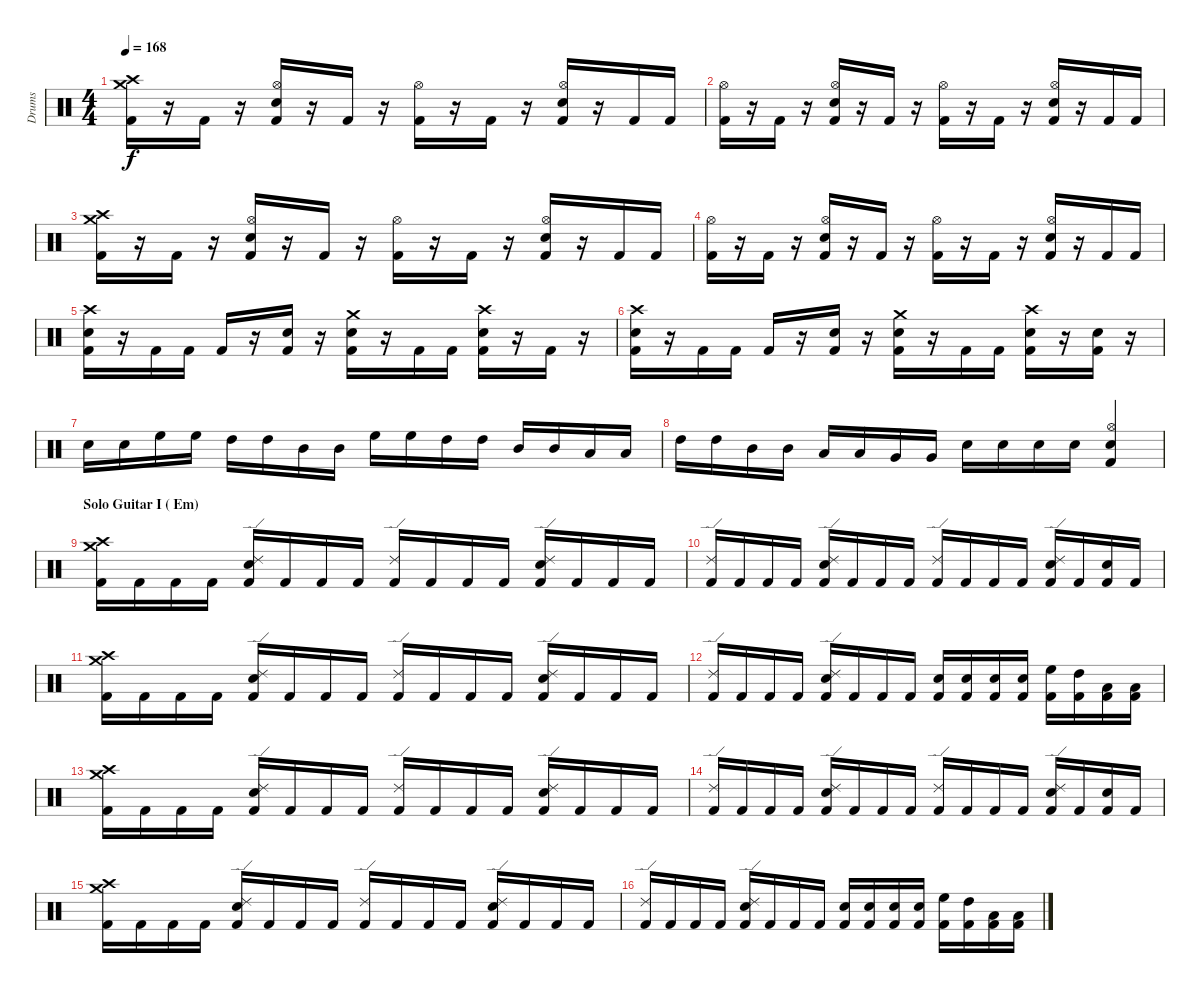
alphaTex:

\track ("Drums" "Drums") {instrument percussion}
\staff {score}
\articulation defaults
\ts (4 4)
\tempo 168
\clef neutral
\ks c
("Crash medium (hit)" "Crash high (hit)" "Kick (hit) 2").16{dy f} r.16 "Kick (hit) 2".16 r.16 ("Hi-Hat (open)" "Snare (hit) 2" "Kick (hit) 2").16 r.16 "Kick (hit) 2".16 r.16 ("Hi-Hat (open)" "Kick (hit) 2").16 r.16 "Kick (hit) 2".16 r.16 ("Hi-Hat (open)" "Snare (hit) 2" "Kick (hit) 2").16 r.16 "Kick (hit) 2".16 "Kick (hit) 2".16 |
("Hi-Hat (open)" "Kick (hit) 2").16 r.16 "Kick (hit) 2".16 r.16 ("Hi-Hat (open)" "Snare (hit) 2" "Kick (hit) 2").16 r.16 "Kick (hit) 2".16 r.16 ("Hi-Hat (open)" "Kick (hit) 2").16 r.16 "Kick (hit) 2".16 r.16 ("Hi-Hat (open)" "Snare (hit) 2" "Kick (hit) 2").16 r.16 "Kick (hit) 2".16 "Kick (hit) 2".16 |
("Crash medium (hit)" "Crash high (hit)" "Kick (hit) 2").16 r.16 "Kick (hit) 2".16 r.16 ("Hi-Hat (open)" "Snare (hit) 2" "Kick (hit) 2").16 r.16 "Kick (hit) 2".16 r.16 ("Hi-Hat (open)" "Kick (hit) 2").16 r.16 "Kick (hit) 2".16 r.16 ("Hi-Hat (open)" "Snare (hit) 2" "Kick (hit) 2").16 r.16 "Kick (hit) 2".16 "Kick (hit) 2".16 |
("Hi-Hat (open)" "Kick (hit) 2").16 r.16 "Kick (hit) 2".16 r.16 ("Hi-Hat (open)" "Snare (hit) 2" "Kick (hit) 2").16 r.16 "Kick (hit) 2".16 r.16 ("Hi-Hat (open)" "Kick (hit) 2").16 r.16 "Kick (hit) 2".16 r.16 ("Hi-Hat (open)" "Snare (hit) 2" "Kick (hit) 2").16 r.16 "Kick (hit) 2".16 "Kick (hit) 2".16 |
("Crash high (hit)" "Snare (hit) 2" "Kick (hit) 2").16 r.16 "Kick (hit) 2".16 "Kick (hit) 2".16 "Kick (hit) 2".16 r.16 ("Snare (hit) 2" "Kick (hit) 2").16 r.16 ("Crash medium (hit)" "Snare (hit) 2" "Kick (hit) 2").16 r.16 "Kick (hit) 2".16 "Kick (hit) 2".16 ("Crash high (hit)" "Snare (hit) 2" "Kick (hit) 2").16 r.16 "Kick (hit) 2".16 r.16 |
("Crash high (hit)" "Snare (hit) 2" "Kick (hit) 2").16 r.16 "Kick (hit) 2".16 "Kick (hit) 2".16 "Kick (hit) 2".16 r.16 ("Snare (hit) 2" "Kick (hit) 2").16 r.16 ("Crash medium (hit)" "Snare (hit) 2" "Kick (hit) 2").16 r.16 "Kick (hit) 2".16 "Kick (hit) 2".16 ("Crash high (hit)" "Snare (hit) 2" "Kick (hit) 2").16 r.16 ("Snare (hit) 2" "Kick (hit) 2").16 r.16 |
"Snare (hit) 2".16 "Snare (hit) 2".16 "High Floor Tom (hit)".16 "High Floor Tom (hit)".16 "High Tom (hit)".16 "High Tom (hit)".16 "Mid Tom (hit)".16 "Mid Tom (hit)".16 "High Floor Tom (hit)".16 "High Floor Tom (hit)".16 "High Tom (hit)".16 "High Tom (hit)".16 "Mid Tom (hit)".16 "Mid Tom (hit)".16 "Low Tom (hit)".16 "Low Tom (hit)".16 |
"High Tom (hit)".16 "High Tom (hit)".16 "Mid Tom (hit)".16 "Mid Tom (hit)".16 "Low Tom (hit)".16 "Low Tom (hit)".16 "Very Low Tom (hit)".16 "Very Low Tom (hit)".16 "Snare (hit) 2".16 "Snare (hit) 2".16 "Snare (hit) 2".16 "Snare (hit) 2".16 ("Hi-Hat (open)" "Snare (hit) 2" "Kick (hit) 2").4 |
\section ("" "Solo Guitar I ( Em)")
("Crash medium (hit)" "Crash high (hit)" "Kick (hit) 2").16 "Kick (hit) 2".16 "Kick (hit) 2".16 "Kick (hit) 2".16 ("Ride (edge) 2" "Snare (hit) 2" "Kick (hit) 2").16 "Kick (hit) 2".16 "Kick (hit) 2".16 "Kick (hit) 2".16 ("Ride (edge) 2" "Kick (hit) 2").16 "Kick (hit) 2".16 "Kick (hit) 2".16 "Kick (hit) 2".16 ("Ride (edge) 2" "Snare (hit) 2" "Kick (hit) 2").16 "Kick (hit) 2".16 "Kick (hit) 2".16 "Kick (hit) 2".16 |
("Ride (edge) 2" "Kick (hit) 2").16 "Kick (hit) 2".16 "Kick (hit) 2".16 "Kick (hit) 2".16 ("Ride (edge) 2" "Snare (hit) 2" "Kick (hit) 2").16 "Kick (hit) 2".16 "Kick (hit) 2".16 "Kick (hit) 2".16 ("Ride (edge) 2" "Kick (hit) 2").16 "Kick (hit) 2".16 "Kick (hit) 2".16 "Kick (hit) 2".16 ("Ride (edge) 2" "Snare (hit) 2" "Kick (hit) 2").16 "Kick (hit) 2".16 ("Snare (hit) 2" "Kick (hit) 2").16 "Kick (hit) 2".16 |
("Crash medium (hit)" "Crash high (hit)" "Kick (hit) 2").16 "Kick (hit) 2".16 "Kick (hit) 2".16 "Kick (hit) 2".16 ("Ride (edge) 2" "Snare (hit) 2" "Kick (hit) 2").16 "Kick (hit) 2".16 "Kick (hit) 2".16 "Kick (hit) 2".16 ("Ride (edge) 2" "Kick (hit) 2").16 "Kick (hit) 2".16 "Kick (hit) 2".16 "Kick (hit) 2".16 ("Ride (edge) 2" "Snare (hit) 2" "Kick (hit) 2").16 "Kick (hit) 2".16 "Kick (hit) 2".16 "Kick (hit) 2".16 |
("Ride (edge) 2" "Kick (hit) 2").16 "Kick (hit) 2".16 "Kick (hit) 2".16 "Kick (hit) 2".16 ("Ride (edge) 2" "Snare (hit) 2" "Kick (hit) 2").16 "Kick (hit) 2".16 "Kick (hit) 2".16 "Kick (hit) 2".16 ("Snare (hit) 2" "Kick (hit) 2").16 ("Snare (hit) 2" "Kick (hit) 2").16 ("Snare (hit) 2" "Kick (hit) 2").16 ("Snare (hit) 2" "Kick (hit) 2").16 ("High Floor Tom (hit)" "Kick (hit) 2").16 ("High Tom (hit)" "Kick (hit) 2").16 ("Low Tom (hit)" "Kick (hit) 2").16 ("Low Floor Tom (hit)" "Kick (hit) 2").16 |
("Crash medium (hit)" "Crash high (hit)" "Kick (hit) 2").16 "Kick (hit) 2".16 "Kick (hit) 2".16 "Kick (hit) 2".16 ("Ride (edge) 2" "Snare (hit) 2" "Kick (hit) 2").16 "Kick (hit) 2".16 "Kick (hit) 2".16 "Kick (hit) 2".16 ("Ride (edge) 2" "Kick (hit) 2").16 "Kick (hit) 2".16 "Kick (hit) 2".16 "Kick (hit) 2".16 ("Ride (edge) 2" "Snare (hit) 2" "Kick (hit) 2").16 "Kick (hit) 2".16 "Kick (hit) 2".16 "Kick (hit) 2".16 |
("Ride (edge) 2" "Kick (hit) 2").16 "Kick (hit) 2".16 "Kick (hit) 2".16 "Kick (hit) 2".16 ("Ride (edge) 2" "Snare (hit) 2" "Kick (hit) 2").16 "Kick (hit) 2".16 "Kick (hit) 2".16 "Kick (hit) 2".16 ("Ride (edge) 2" "Kick (hit) 2").16 "Kick (hit) 2".16 "Kick (hit) 2".16 "Kick (hit) 2".16 ("Ride (edge) 2" "Snare (hit) 2" "Kick (hit) 2").16 "Kick (hit) 2".16 ("Snare (hit) 2" "Kick (hit) 2").16 "Kick (hit) 2".16 |
("Crash medium (hit)" "Crash high (hit)" "Kick (hit) 2").16 "Kick (hit) 2".16 "Kick (hit) 2".16 "Kick (hit) 2".16 ("Ride (edge) 2" "Snare (hit) 2" "Kick (hit) 2").16 "Kick (hit) 2".16 "Kick (hit) 2".16 "Kick (hit) 2".16 ("Ride (edge) 2" "Kick (hit) 2").16 "Kick (hit) 2".16 "Kick (hit) 2".16 "Kick (hit) 2".16 ("Ride (edge) 2" "Snare (hit) 2" "Kick (hit) 2").16 "Kick (hit) 2".16 "Kick (hit) 2".16 "Kick (hit) 2".16 |
("Ride (edge) 2" "Kick (hit) 2").16 "Kick (hit) 2".16 "Kick (hit) 2".16 "Kick (hit) 2".16 ("Ride (edge) 2" "Snare (hit) 2" "Kick (hit) 2").16 "Kick (hit) 2".16 "Kick (hit) 2".16 "Kick (hit) 2".16 ("Snare (hit) 2" "Kick (hit) 2").16 ("Snare (hit) 2" "Kick (hit) 2").16 ("Snare (hit) 2" "Kick (hit) 2").16 ("Snare (hit) 2" "Kick (hit) 2").16 ("High Floor Tom (hit)" "Kick (hit) 2").16 ("High Tom (hit)" "Kick (hit) 2").16 ("Low Tom (hit)" "Kick (hit) 2").16 ("Low Floor Tom (hit)" "Kick (hit) 2").16
